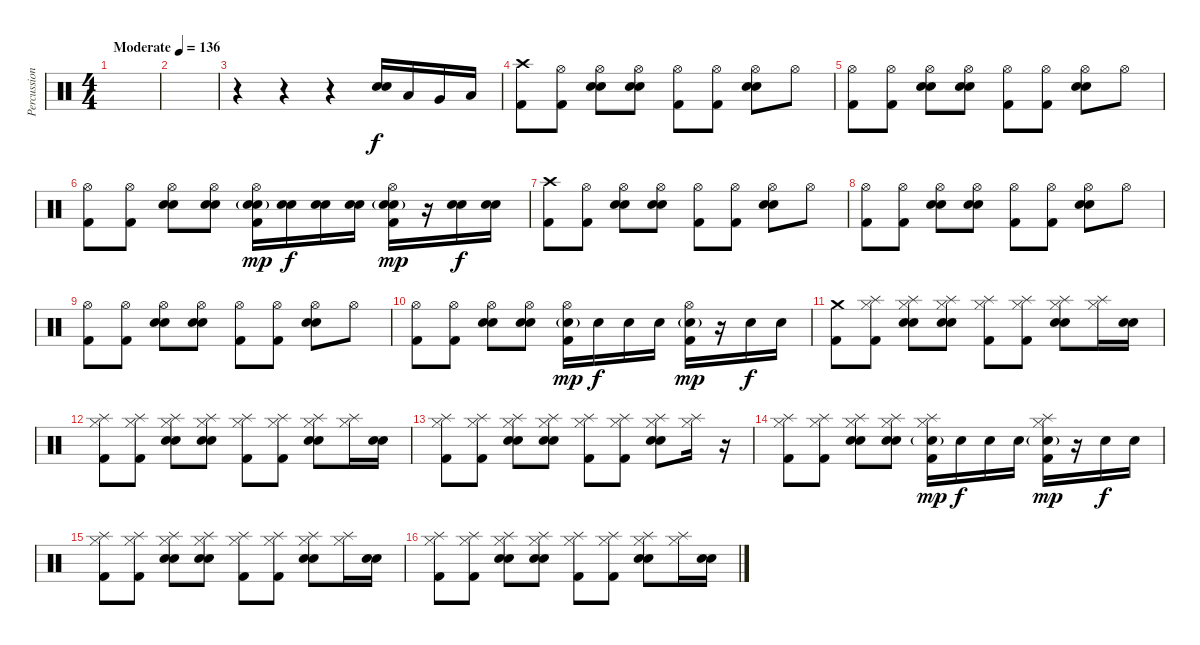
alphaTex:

\track ("Percussion" "Percussion") {instrument percussion}
\staff {score}
\articulation defaults
\ts (4 4)
\tempo (136 "Moderate")
\clef neutral
\ks c
|
|
r.4 r.4 r.4 ("Snare (hit) 2" "Electric Snare (hit)").16 "Low Tom (hit)".16 "Very Low Tom (hit)".16 "Low Floor Tom (hit)".16 |
("Crash high (hit)" "Kick (hit) 2").8 ("Hi-Hat (open)" "Kick (hit) 2").8 ("Hi-Hat (open)" "Electric Snare (hit)" "Snare (hit) 2").8 ("Hi-Hat (open)" "Electric Snare (hit)" "Snare (hit) 2").8 ("Hi-Hat (open)" "Kick (hit) 2").8 ("Hi-Hat (open)" "Kick (hit) 2").8 ("Hi-Hat (open)" "Electric Snare (hit)" "Snare (hit) 2").8 "Hi-Hat (open)".8 |
("Hi-Hat (open)" "Kick (hit) 2").8 ("Hi-Hat (open)" "Kick (hit) 2").8 ("Hi-Hat (open)" "Electric Snare (hit)" "Snare (hit) 2").8 ("Hi-Hat (open)" "Electric Snare (hit)" "Snare (hit) 2").8 ("Hi-Hat (open)" "Kick (hit) 2").8 ("Hi-Hat (open)" "Kick (hit) 2").8 ("Hi-Hat (open)" "Electric Snare (hit)" "Snare (hit) 2").8 "Hi-Hat (open)".8 |
("Hi-Hat (open)" "Kick (hit) 2").8 ("Hi-Hat (open)" "Kick (hit) 2").8 ("Hi-Hat (open)" "Electric Snare (hit)" "Snare (hit) 2").8 ("Hi-Hat (open)" "Electric Snare (hit)" "Snare (hit) 2").8 ("Hi-Hat (open)" "Snare (hit) 2"{g} "Electric Snare (hit)"{g} "Kick (hit) 2").16{dy mp} ("Snare (hit) 2" "Electric Snare (hit)").16{dy f} ("Snare (hit) 2" "Electric Snare (hit)").16 ("Snare (hit) 2" "Electric Snare (hit)").16 ("Hi-Hat (open)" "Snare (hit) 2"{g} "Electric Snare (hit)"{g} "Kick (hit) 2").16{dy mp} r.16 ("Snare (hit) 2" "Electric Snare (hit)").16{dy f} ("Snare (hit) 2" "Electric Snare (hit)").16 |
("Crash high (hit)" "Kick (hit) 2").8 ("Hi-Hat (open)" "Kick (hit) 2").8 ("Hi-Hat (open)" "Electric Snare (hit)" "Snare (hit) 2").8 ("Hi-Hat (open)" "Electric Snare (hit)" "Snare (hit) 2").8 ("Hi-Hat (open)" "Kick (hit) 2").8 ("Hi-Hat (open)" "Kick (hit) 2").8 ("Hi-Hat (open)" "Electric Snare (hit)" "Snare (hit) 2").8 "Hi-Hat (open)".8 |
("Hi-Hat (open)" "Kick (hit) 2").8 ("Hi-Hat (open)" "Kick (hit) 2").8 ("Hi-Hat (open)" "Electric Snare (hit)" "Snare (hit) 2").8 ("Hi-Hat (open)" "Electric Snare (hit)" "Snare (hit) 2").8 ("Hi-Hat (open)" "Kick (hit) 2").8 ("Hi-Hat (open)" "Kick (hit) 2").8 ("Hi-Hat (open)" "Electric Snare (hit)" "Snare (hit) 2").8 "Hi-Hat (open)".8 |
("Hi-Hat (open)" "Kick (hit) 2").8 ("Hi-Hat (open)" "Kick (hit) 2").8 ("Hi-Hat (open)" "Electric Snare (hit)" "Snare (hit) 2").8 ("Hi-Hat (open)" "Electric Snare (hit)" "Snare (hit) 2").8 ("Hi-Hat (open)" "Kick (hit) 2").8 ("Hi-Hat (open)" "Kick (hit) 2").8 ("Hi-Hat (open)" "Electric Snare (hit)" "Snare (hit) 2").8 "Hi-Hat (open)".8 |
("Hi-Hat (open)" "Kick (hit) 2").8 ("Hi-Hat (open)" "Kick (hit) 2").8 ("Hi-Hat (open)" "Electric Snare (hit)" "Snare (hit) 2").8 ("Hi-Hat (open)" "Electric Snare (hit)" "Snare (hit) 2").8 ("Hi-Hat (open)" "Snare (hit) 2"{g} "Kick (hit) 2").16{dy mp} "Snare (hit) 2".16{dy f} "Snare (hit) 2".16 "Snare (hit) 2".16 ("Hi-Hat (open)" "Snare (hit) 2"{g} "Kick (hit) 2").16{dy mp} r.16 "Snare (hit) 2".16{dy f} "Snare (hit) 2".16 |
("Crash medium (hit)" "Kick (hit) 2").8 ("Hi-Hat (closed)" "Splash (hit)" "Kick (hit) 2").8 ("Hi-Hat (closed)" "Splash (hit)" "Electric Snare (hit)" "Snare (hit) 2").8 ("Hi-Hat (closed)" "Splash (hit)" "Electric Snare (hit)" "Snare (hit) 2").8 ("Hi-Hat (closed)" "Splash (hit)" "Kick (hit) 2").8 ("Hi-Hat (closed)" "Splash (hit)" "Kick (hit) 2").8 ("Hi-Hat (closed)" "Splash (hit)" "Electric Snare (hit)" "Snare (hit) 2").8 ("Hi-Hat (closed)" "Splash (hit)").16 ("Electric Snare (hit)" "Snare (hit) 2").16 |
("Hi-Hat (closed)" "Splash (hit)" "Kick (hit) 2").8 ("Hi-Hat (closed)" "Splash (hit)" "Kick (hit) 2").8 ("Hi-Hat (closed)" "Splash (hit)" "Electric Snare (hit)" "Snare (hit) 2").8 ("Hi-Hat (closed)" "Splash (hit)" "Electric Snare (hit)" "Snare (hit) 2").8 ("Hi-Hat (closed)" "Splash (hit)" "Kick (hit) 2").8 ("Hi-Hat (closed)" "Splash (hit)" "Kick (hit) 2").8 ("Hi-Hat (closed)" "Splash (hit)" "Electric Snare (hit)" "Snare (hit) 2").8 ("Hi-Hat (closed)" "Splash (hit)").16 ("Electric Snare (hit)" "Snare (hit) 2").16 |
("Hi-Hat (closed)" "Splash (hit)" "Kick (hit) 2").8 ("Hi-Hat (closed)" "Splash (hit)" "Kick (hit) 2").8 ("Hi-Hat (closed)" "Splash (hit)" "Electric Snare (hit)" "Snare (hit) 2").8 ("Hi-Hat (closed)" "Splash (hit)" "Electric Snare (hit)" "Snare (hit) 2").8 ("Hi-Hat (closed)" "Splash (hit)" "Kick (hit) 2").8 ("Hi-Hat (closed)" "Splash (hit)" "Kick (hit) 2").8 ("Hi-Hat (closed)" "Splash (hit)" "Electric Snare (hit)" "Snare (hit) 2").8 ("Hi-Hat (closed)" "Splash (hit)").16 r.16 |
("Hi-Hat (closed)" "Splash (hit)" "Kick (hit) 2").8 ("Hi-Hat (closed)" "Splash (hit)" "Kick (hit) 2").8 ("Hi-Hat (closed)" "Splash (hit)" "Electric Snare (hit)" "Snare (hit) 2").8 ("Hi-Hat (closed)" "Splash (hit)" "Electric Snare (hit)" "Snare (hit) 2").8 ("Hi-Hat (closed)" "Splash (hit)" "Snare (hit) 2"{g} "Kick (hit) 2").16{dy mp} "Snare (hit) 2".16{dy f} "Snare (hit) 2".16 "Snare (hit) 2".16 ("Hi-Hat (closed)" "Splash (hit)" "Snare (hit) 2"{g} "Kick (hit) 2").16{dy mp} r.16 "Snare (hit) 2".16{dy f} "Snare (hit) 2".16 |
("Hi-Hat (closed)" "Splash (hit)" "Kick (hit) 2").8 ("Hi-Hat (closed)" "Splash (hit)" "Kick (hit) 2").8 ("Hi-Hat (closed)" "Splash (hit)" "Electric Snare (hit)" "Snare (hit) 2").8 ("Hi-Hat (closed)" "Splash (hit)" "Electric Snare (hit)" "Snare (hit) 2").8 ("Hi-Hat (closed)" "Splash (hit)" "Kick (hit) 2").8 ("Hi-Hat (closed)" "Splash (hit)" "Kick (hit) 2").8 ("Hi-Hat (closed)" "Splash (hit)" "Electric Snare (hit)" "Snare (hit) 2").8 ("Hi-Hat (closed)" "Splash (hit)").16 ("Electric Snare (hit)" "Snare (hit) 2").16 |
("Hi-Hat (closed)" "Splash (hit)" "Kick (hit) 2").8 ("Hi-Hat (closed)" "Splash (hit)" "Kick (hit) 2").8 ("Hi-Hat (closed)" "Splash (hit)" "Electric Snare (hit)" "Snare (hit) 2").8 ("Hi-Hat (closed)" "Splash (hit)" "Electric Snare (hit)" "Snare (hit) 2").8 ("Hi-Hat (closed)" "Splash (hit)" "Kick (hit) 2").8 ("Hi-Hat (closed)" "Splash (hit)" "Kick (hit) 2").8 ("Hi-Hat (closed)" "Splash (hit)" "Electric Snare (hit)" "Snare (hit) 2").8 ("Hi-Hat (closed)" "Splash (hit)").16 ("Electric Snare (hit)" "Snare (hit) 2").16
